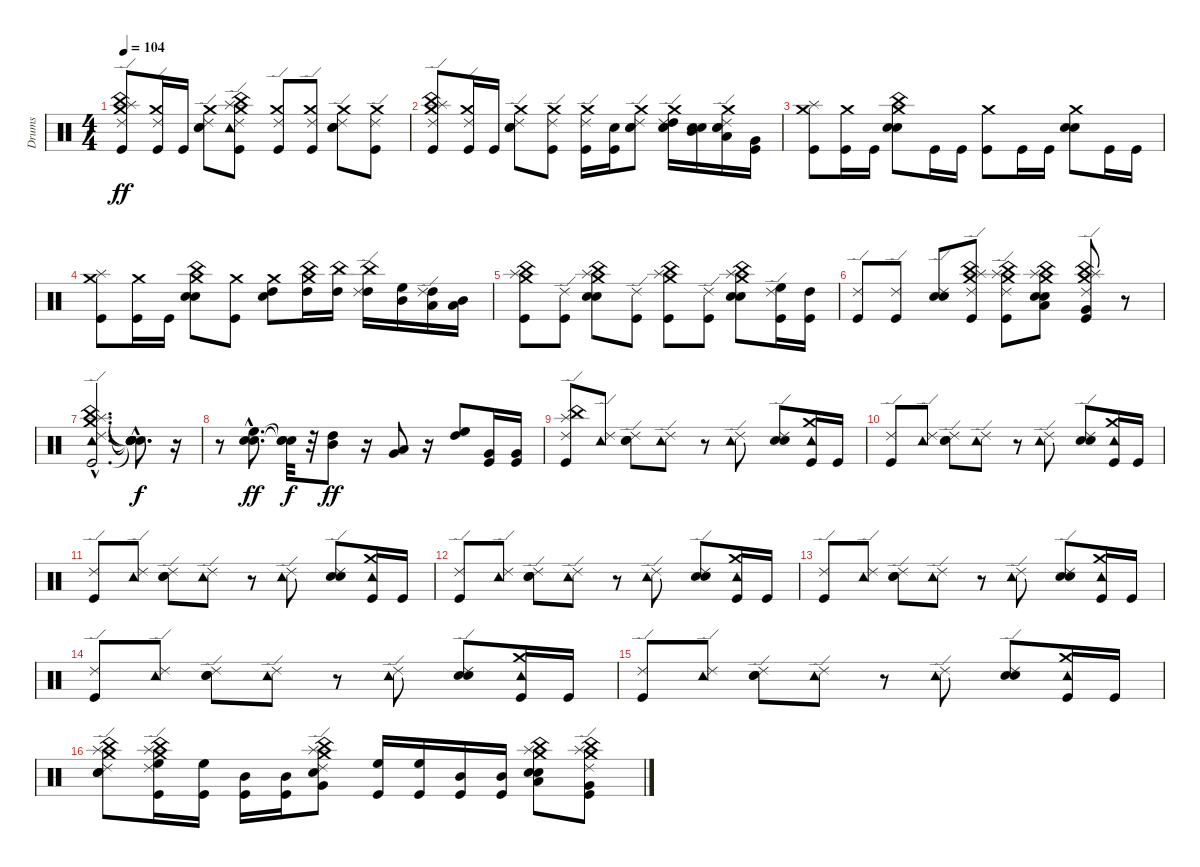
\track ("Drums" "Drums") {instrument percussion}
\staff {score}
\articulation defaults
\ts (4 4)
\tempo 104
\clef neutral
\ks c
("Kick (hit)" "China (hit)" "Splash (hit)" "Crash medium (hit)" "Ride (edge) 2").8{dy ff} ("Kick (hit)" "Crash medium (hit)" "Ride (edge) 2").16 "Kick (hit)".16 ("Snare (hit) 2" "Electric Snare (hit)" "Crash medium (hit)" "Ride (edge) 2").8 ("Kick (hit)" "China (hit)" "Tambourine (hit)" "Splash (hit)" "Crash medium (hit)" "Ride (edge) 2").8 ("Kick (hit)" "Crash medium (hit)" "Ride (edge) 2").8 ("Kick (hit)" "Crash medium (hit)" "Ride (edge) 2").8 ("Snare (hit) 2" "Electric Snare (hit)" "Crash medium (hit)" "Ride (edge) 2").8 ("Kick (hit)" "Crash medium (hit)" "Ride (edge) 2").8 |
("Kick (hit)" "China (hit)" "Splash (hit)" "Crash medium (hit)" "Ride (edge) 2").8 ("Kick (hit)" "Crash medium (hit)" "Ride (edge) 2").16 "Kick (hit)".16 ("Snare (hit) 2" "Electric Snare (hit)" "Crash medium (hit)" "Ride (edge) 2").8 ("Kick (hit)" "Crash medium (hit)" "Ride (edge) 2").8 ("Kick (hit)" "Crash medium (hit)" "Ride (edge) 2").16 ("Kick (hit)" "Snare (hit) 2").16 ("Snare (hit) 2" "Electric Snare (hit)" "Crash medium (hit)" "Ride (edge) 2").8 ("Snare (hit) 2" "Electric Snare (hit)" "High Tom (hit)" "Crash medium (hit)" "Ride (edge) 2").16 ("Snare (hit) 2" "Electric Snare (hit)" "Mid Tom (hit)").16 ("Snare (hit) 2" "Electric Snare (hit)" "Low Tom (hit)" "Crash medium (hit)" "Ride (edge) 2").16 ("Kick (hit)" "Very Low Tom (hit)").16 |
("Kick (hit)" "Splash (hit)" "Crash medium (hit)").8 ("Kick (hit)" "Crash medium (hit)").16 "Kick (hit)".16 ("Snare (hit) 2" "Electric Snare (hit)" "China (hit)" "Crash medium (hit)").8 "Kick (hit)".16 "Kick (hit)".16 ("Kick (hit)" "Crash medium (hit)").8 "Kick (hit)".16 "Kick (hit)".16 ("Snare (hit) 2" "Electric Snare (hit)" "Crash medium (hit)").8 "Kick (hit)".16 "Kick (hit)".16 |
("Kick (hit)" "Splash (hit)" "Crash medium (hit)").8 ("Kick (hit)" "Crash medium (hit)").16 "Kick (hit)".16 ("Snare (hit) 2" "Electric Snare (hit)" "China (hit)" "Crash medium (hit)").8 ("Kick (hit)" "Crash medium (hit)").8 ("Snare (hit) 2" "High Tom (hit)" "Crash medium (hit)").8 ("High Tom (hit)" "China (hit)" "Crash medium (hit)").16 ("High Tom (hit)" "China (hit)").16 ("High Tom (hit)" "China (hit)" "Ride (edge) 2").16 ("Mid Tom (hit)" "High Floor Tom (hit)").16 ("Low Tom (hit)" "High Tom (hit)" "Ride (edge) 2").16 ("Low Tom (hit)" "Mid Tom (hit)").16 |
("Kick (hit)" "China (hit)" "Splash (hit)" "Crash medium (hit)").8 ("Kick (hit)" "Ride (edge) 2").8 ("Snare (hit) 2" "Electric Snare (hit)" "China (hit)" "Splash (hit)" "Crash medium (hit)").8 ("Kick (hit)" "Ride (edge) 2").8 ("Kick (hit)" "China (hit)" "Splash (hit)" "Crash medium (hit)").8 ("Kick (hit)" "Ride (edge) 2").8 ("Snare (hit) 2" "Electric Snare (hit)" "China (hit)" "Splash (hit)" "Crash medium (hit)").8 ("Kick (hit)" "High Floor Tom (hit)" "Ride (edge) 2").16 ("Kick (hit)" "High Tom (hit)").16 |
("Kick (hit)" "Ride (edge) 2").8 ("Kick (hit)" "Ride (edge) 2").8 ("Snare (hit) 2" "Electric Snare (hit)" "Ride (edge) 2").8 ("Kick (hit)" "China (hit)" "Splash (hit)" "Crash medium (hit)" "Ride (edge) 2").8 ("Kick (hit)" "China (hit)" "Splash (hit)" "Crash medium (hit)" "Ride (edge) 2").8 ("Snare (hit) 2" "Electric Snare (hit)" "Low Tom (hit)" "China (hit)" "Splash (hit)" "Crash medium (hit)").8 ("Kick (hit)" "Very Low Tom (hit)" "China (hit)" "Splash (hit)" "Crash medium (hit)" "Ride (edge) 2").8 r.8 |
("Kick (hit)"{hac} "China (hit)"{hac} "Tambourine (hit)"{hac} "Splash (hit)"{hac} "Crash medium (hit)"{hac} "Ride (edge) 2"{hac}).2{d} ("Snare (hit)"{hac t} "Snare (hit)"{hac t} "Snare (hit)"{hac t} "Snare (hit)"{hac t} "Snare (hit)"{hac t} "Snare (hit)"{hac t}).8{d dy f} r.16 |
r.8 ("Snare (hit) 2"{hac} "Electric Snare (hit)"{hac} "High Floor Tom (hit)"{hac}).8{d dy ff} ("Snare (hit)"{t} "Snare (hit)"{t} "Snare (hit)"{t}).32{dy f} r.32 ("Mid Tom (hit)" "High Tom (hit)").8{dy ff} r.16 ("Very Low Tom (hit)" "Low Tom (hit)").8 r.16 ("High Tom (hit)" "High Floor Tom (hit)").8 ("Kick (hit)" "Very Low Tom (hit)").16 ("Kick (hit)" "Very Low Tom (hit)").16 |
("Kick (hit)" "China (hit)" "Splash (hit)" "Ride (edge) 2").8 ("Tambourine (hit)" "Ride (edge) 2").8 ("Snare (hit) 2" "Electric Snare (hit)" "Ride (edge) 2").8 ("Tambourine (hit)" "Ride (edge) 2").8 r.8 ("Tambourine (hit)" "Ride (edge) 2").8 ("Snare (hit) 2" "Electric Snare (hit)" "Ride (edge) 2").8 ("Kick (hit)" "Tambourine (hit)" "Crash medium (hit)").16 "Kick (hit)".16 |
("Kick (hit)" "Ride (edge) 2").8 ("Tambourine (hit)" "Ride (edge) 2").8 ("Snare (hit) 2" "Electric Snare (hit)" "Ride (edge) 2").8 ("Tambourine (hit)" "Ride (edge) 2").8 r.8 ("Tambourine (hit)" "Ride (edge) 2").8 ("Snare (hit) 2" "Electric Snare (hit)" "Ride (edge) 2").8 ("Kick (hit)" "Tambourine (hit)" "Crash medium (hit)").16 "Kick (hit)".16 |
("Kick (hit)" "Ride (edge) 2").8 ("Tambourine (hit)" "Ride (edge) 2").8 ("Snare (hit) 2" "Electric Snare (hit)" "Ride (edge) 2").8 ("Tambourine (hit)" "Ride (edge) 2").8 r.8 ("Tambourine (hit)" "Ride (edge) 2").8 ("Snare (hit) 2" "Electric Snare (hit)" "Ride (edge) 2").8 ("Kick (hit)" "Tambourine (hit)" "Crash medium (hit)").16 "Kick (hit)".16 |
("Kick (hit)" "Ride (edge) 2").8 ("Tambourine (hit)" "Ride (edge) 2").8 ("Snare (hit) 2" "Electric Snare (hit)" "Ride (edge) 2").8 ("Tambourine (hit)" "Ride (edge) 2").8 r.8 ("Tambourine (hit)" "Ride (edge) 2").8 ("Snare (hit) 2" "Electric Snare (hit)" "Ride (edge) 2").8 ("Kick (hit)" "Tambourine (hit)" "Crash medium (hit)").16 "Kick (hit)".16 |
("Kick (hit)" "Ride (edge) 2").8 ("Tambourine (hit)" "Ride (edge) 2").8 ("Snare (hit) 2" "Electric Snare (hit)" "Ride (edge) 2").8 ("Tambourine (hit)" "Ride (edge) 2").8 r.8 ("Tambourine (hit)" "Ride (edge) 2").8 ("Snare (hit) 2" "Electric Snare (hit)" "Ride (edge) 2").8 ("Kick (hit)" "Tambourine (hit)" "Crash medium (hit)").16 "Kick (hit)".16 |
("Kick (hit)" "Ride (edge) 2").8 ("Tambourine (hit)" "Ride (edge) 2").8 ("Snare (hit) 2" "Electric Snare (hit)" "Ride (edge) 2").8 ("Tambourine (hit)" "Ride (edge) 2").8 r.8 ("Tambourine (hit)" "Ride (edge) 2").8 ("Snare (hit) 2" "Electric Snare (hit)" "Ride (edge) 2").8 ("Kick (hit)" "Tambourine (hit)" "Crash medium (hit)").16 "Kick (hit)".16 |
("Kick (hit)" "Ride (edge) 2").8 ("Tambourine (hit)" "Ride (edge) 2").8 ("Snare (hit) 2" "Electric Snare (hit)" "Ride (edge) 2").8 ("Tambourine (hit)" "Ride (edge) 2").8 r.8 ("Tambourine (hit)" "Ride (edge) 2").8 ("Snare (hit) 2" "Electric Snare (hit)" "Ride (edge) 2").8 ("Kick (hit)" "Tambourine (hit)" "Crash medium (hit)").16 "Kick (hit)".16 |
("Snare (hit) 2" "Electric Snare (hit)" "China (hit)" "Splash (hit)" "Crash medium (hit)" "Ride (edge) 2").8 ("Kick (hit)" "High Floor Tom (hit)" "China (hit)" "Splash (hit)" "Crash medium (hit)" "Ride (edge) 2").16 ("Kick (hit)" "High Floor Tom (hit)").16 ("Kick (hit)" "Mid Tom (hit)").16 ("Kick (hit)" "Mid Tom (hit)").16 ("Electric Snare (hit)" "Very Low Tom (hit)" "China (hit)" "Splash (hit)" "Crash medium (hit)" "Ride (edge) 2").8 ("Kick (hit)" "High Floor Tom (hit)").16 ("Kick (hit)" "High Floor Tom (hit)").16 ("Kick (hit)" "Mid Tom (hit)").16 ("Kick (hit)" "Mid Tom (hit)").16 ("Snare (hit) 2" "Electric Snare (hit)" "Low Tom (hit)" "China (hit)" "Splash (hit)" "Crash medium (hit)").8 ("Kick (hit)" "Very Low Tom (hit)" "China (hit)" "Splash (hit)" "Crash medium (hit)" "Ride (edge) 2").8
